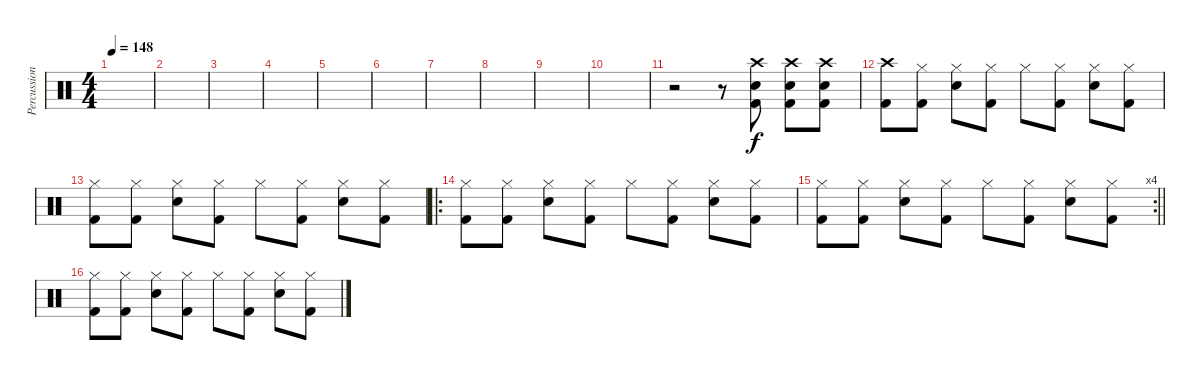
\track ("Percussion" "Percussion") {instrument percussion}
\staff {score}
\articulation defaults
\ts (4 4)
\tempo 148
\clef neutral
\ks c
|
|
|
|
|
|
|
|
|
|
r.2 r.8 ("Crash high (hit)" "Electric Snare (hit)" "Kick (hit) 2").8 ("Crash high (hit)" "Electric Snare (hit)" "Kick (hit) 2").8 ("Crash high (hit)" "Electric Snare (hit)" "Kick (hit) 2").8 |
("Crash high (hit)" "Kick (hit) 2").8 ("Hi-Hat (closed)" "Kick (hit) 2").8 ("Hi-Hat (closed)" "Electric Snare (hit)").8 ("Hi-Hat (closed)" "Kick (hit) 2").8 "Hi-Hat (closed)".8 ("Hi-Hat (closed)" "Kick (hit) 2").8 ("Hi-Hat (closed)" "Electric Snare (hit)").8 ("Hi-Hat (closed)" "Kick (hit) 2").8 |
("Hi-Hat (closed)" "Kick (hit) 2").8 ("Hi-Hat (closed)" "Kick (hit) 2").8 ("Hi-Hat (closed)" "Electric Snare (hit)").8 ("Hi-Hat (closed)" "Kick (hit) 2").8 "Hi-Hat (closed)".8 ("Hi-Hat (closed)" "Kick (hit) 2").8 ("Hi-Hat (closed)" "Electric Snare (hit)").8 ("Hi-Hat (closed)" "Kick (hit) 2").8 |
\ro
("Hi-Hat (closed)" "Kick (hit) 2").8 ("Hi-Hat (closed)" "Kick (hit) 2").8 ("Hi-Hat (closed)" "Electric Snare (hit)").8 ("Hi-Hat (closed)" "Kick (hit) 2").8 "Hi-Hat (closed)".8 ("Hi-Hat (closed)" "Kick (hit) 2").8 ("Hi-Hat (closed)" "Electric Snare (hit)").8 ("Hi-Hat (closed)" "Kick (hit) 2").8 |
\rc 4
\barLineRight lightlight
("Hi-Hat (closed)" "Kick (hit) 2").8 ("Hi-Hat (closed)" "Kick (hit) 2").8 ("Hi-Hat (closed)" "Electric Snare (hit)").8 ("Hi-Hat (closed)" "Kick (hit) 2").8 "Hi-Hat (closed)".8 ("Hi-Hat (closed)" "Kick (hit) 2").8 ("Hi-Hat (closed)" "Electric Snare (hit)").8 ("Hi-Hat (closed)" "Kick (hit) 2").8 |
("Hi-Hat (closed)" "Kick (hit) 2").8 ("Hi-Hat (closed)" "Kick (hit) 2").8 ("Hi-Hat (closed)" "Electric Snare (hit)").8 ("Hi-Hat (closed)" "Kick (hit) 2").8 "Hi-Hat (closed)".8 ("Hi-Hat (closed)" "Kick (hit) 2").8 ("Hi-Hat (closed)" "Electric Snare (hit)").8 ("Hi-Hat (closed)" "Kick (hit) 2").8
